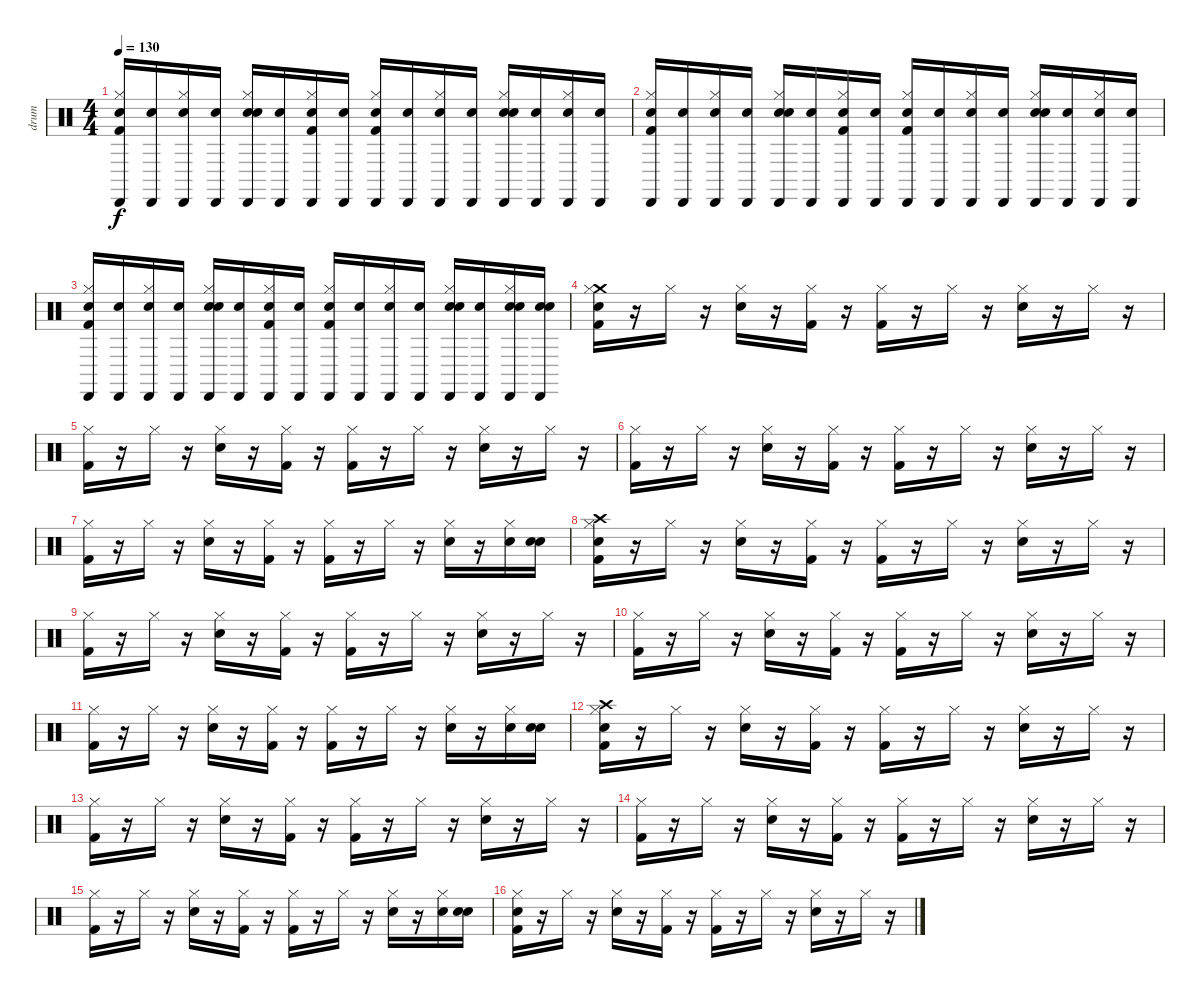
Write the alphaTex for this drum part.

\track ("drum" "drum") {instrument percussion}
\staff {score}
\articulation defaults
\ts (4 4)
\tempo 130
\clef neutral
\ks c
("Snare (hit)" "Cabasa (hit)" "Hi-Hat (closed)" "Kick (hit) 2").16{dy f} ("Snare (hit)" "Cabasa (hit)").16 ("Snare (hit)" "Cabasa (hit)" "Hi-Hat (closed)").16 ("Snare (hit)" "Cabasa (hit)").16 ("Snare (hit)" "Cabasa (hit)" "Snare (hit) 2" "Hi-Hat (closed)").16 ("Snare (hit)" "Cabasa (hit)").16 ("Snare (hit)" "Kick (hit) 2" "Hi-Hat (closed)" "Cabasa (hit)").16 ("Snare (hit)" "Cabasa (hit)").16 ("Snare (hit)" "Kick (hit) 2" "Hi-Hat (closed)" "Cabasa (hit)").16 ("Snare (hit)" "Cabasa (hit)").16 ("Snare (hit)" "Cabasa (hit)" "Hi-Hat (closed)").16 ("Snare (hit)" "Cabasa (hit)").16 ("Snare (hit)" "Hi-Hat (closed)" "Cabasa (hit)" "Snare (hit) 2").16 ("Snare (hit)" "Cabasa (hit)").16 ("Snare (hit)" "Hi-Hat (closed)" "Cabasa (hit)").16 ("Snare (hit)" "Cabasa (hit)").16 |
("Snare (hit)" "Kick (hit) 2" "Hi-Hat (closed)" "Cabasa (hit)").16 ("Snare (hit)" "Cabasa (hit)").16 ("Snare (hit)" "Cabasa (hit)" "Hi-Hat (closed)").16 ("Snare (hit)" "Cabasa (hit)").16 ("Snare (hit)" "Snare (hit) 2" "Hi-Hat (closed)" "Cabasa (hit)").16 ("Snare (hit)" "Cabasa (hit)").16 ("Snare (hit)" "Hi-Hat (closed)" "Kick (hit) 2" "Cabasa (hit)").16 ("Snare (hit)" "Cabasa (hit)").16 ("Snare (hit)" "Cabasa (hit)" "Kick (hit) 2" "Hi-Hat (closed)").16 ("Snare (hit)" "Cabasa (hit)").16 ("Snare (hit)" "Hi-Hat (closed)" "Cabasa (hit)").16 ("Snare (hit)" "Cabasa (hit)").16 ("Snare (hit)" "Snare (hit) 2" "Hi-Hat (closed)" "Cabasa (hit)").16 ("Snare (hit)" "Cabasa (hit)").16 ("Snare (hit)" "Cabasa (hit)" "Hi-Hat (closed)").16 ("Snare (hit)" "Cabasa (hit)").16 |
("Snare (hit)" "Hi-Hat (closed)" "Cabasa (hit)" "Kick (hit) 2").16 ("Snare (hit)" "Cabasa (hit)").16 ("Snare (hit)" "Hi-Hat (closed)" "Cabasa (hit)").16 ("Snare (hit)" "Cabasa (hit)").16 ("Snare (hit)" "Cabasa (hit)" "Hi-Hat (closed)" "Snare (hit) 2").16 ("Snare (hit)" "Cabasa (hit)").16 ("Snare (hit)" "Kick (hit) 2" "Cabasa (hit)" "Hi-Hat (closed)").16 ("Snare (hit)" "Cabasa (hit)").16 ("Snare (hit)" "Hi-Hat (closed)" "Kick (hit) 2" "Cabasa (hit)").16 ("Snare (hit)" "Cabasa (hit)").16 ("Snare (hit)" "Cabasa (hit)" "Hi-Hat (closed)").16 ("Snare (hit)" "Cabasa (hit)").16 ("Snare (hit)" "Snare (hit) 2" "Cabasa (hit)" "Hi-Hat (closed)").16 ("Snare (hit)" "Cabasa (hit)").16 ("Snare (hit)" "Hi-Hat (closed)" "Cabasa (hit)" "Snare (hit) 2").16 ("Snare (hit)" "Snare (hit) 2" "Cabasa (hit)").16 |
("Snare (hit)" "Kick (hit) 2" "Crash medium (hit)" "Hi-Hat (closed)").16 r.16 "Hi-Hat (closed)".16 r.16 ("Snare (hit) 2" "Hi-Hat (closed)").16 r.16 ("Hi-Hat (closed)" "Kick (hit) 2").16 r.16 ("Kick (hit) 2" "Hi-Hat (closed)").16 r.16 "Hi-Hat (closed)".16 r.16 ("Hi-Hat (closed)" "Snare (hit) 2").16 r.16 "Hi-Hat (closed)".16 r.16 |
("Hi-Hat (closed)" "Kick (hit) 2").16 r.16 "Hi-Hat (closed)".16 r.16 ("Hi-Hat (closed)" "Snare (hit) 2").16 r.16 ("Kick (hit) 2" "Hi-Hat (closed)").16 r.16 ("Kick (hit) 2" "Hi-Hat (closed)").16 r.16 "Hi-Hat (closed)".16 r.16 ("Hi-Hat (closed)" "Snare (hit) 2").16 r.16 "Hi-Hat (closed)".16 r.16 |
("Kick (hit) 2" "Hi-Hat (closed)").16 r.16 "Hi-Hat (closed)".16 r.16 ("Snare (hit) 2" "Hi-Hat (closed)").16 r.16 ("Kick (hit) 2" "Hi-Hat (closed)").16 r.16 ("Kick (hit) 2" "Hi-Hat (closed)").16 r.16 "Hi-Hat (closed)".16 r.16 ("Hi-Hat (closed)" "Snare (hit) 2").16 r.16 "Hi-Hat (closed)".16 r.16 |
("Kick (hit) 2" "Hi-Hat (closed)").16 r.16 "Hi-Hat (closed)".16 r.16 ("Hi-Hat (closed)" "Snare (hit) 2").16 r.16 ("Hi-Hat (closed)" "Kick (hit) 2").16 r.16 ("Kick (hit) 2" "Hi-Hat (closed)").16 r.16 "Hi-Hat (closed)".16 r.16 ("Snare (hit) 2" "Hi-Hat (closed)").16 r.16 ("Snare (hit) 2" "Hi-Hat (closed)").16 ("Snare (hit)" "Snare (hit) 2").16 |
("Snare (hit)" "Crash high (hit)" "Hi-Hat (closed)" "Kick (hit) 2").16 r.16 "Hi-Hat (closed)".16 r.16 ("Hi-Hat (closed)" "Snare (hit) 2").16 r.16 ("Hi-Hat (closed)" "Kick (hit) 2").16 r.16 ("Kick (hit) 2" "Hi-Hat (closed)").16 r.16 "Hi-Hat (closed)".16 r.16 ("Snare (hit) 2" "Hi-Hat (closed)").16 r.16 "Hi-Hat (closed)".16 r.16 |
("Kick (hit) 2" "Hi-Hat (closed)").16 r.16 "Hi-Hat (closed)".16 r.16 ("Snare (hit) 2" "Hi-Hat (closed)").16 r.16 ("Kick (hit) 2" "Hi-Hat (closed)").16 r.16 ("Kick (hit) 2" "Hi-Hat (closed)").16 r.16 "Hi-Hat (closed)".16 r.16 ("Hi-Hat (closed)" "Snare (hit) 2").16 r.16 "Hi-Hat (closed)".16 r.16 |
("Hi-Hat (closed)" "Kick (hit) 2").16 r.16 "Hi-Hat (closed)".16 r.16 ("Hi-Hat (closed)" "Snare (hit) 2").16 r.16 ("Kick (hit) 2" "Hi-Hat (closed)").16 r.16 ("Kick (hit) 2" "Hi-Hat (closed)").16 r.16 "Hi-Hat (closed)".16 r.16 ("Hi-Hat (closed)" "Snare (hit) 2").16 r.16 "Hi-Hat (closed)".16 r.16 |
("Kick (hit) 2" "Hi-Hat (closed)").16 r.16 "Hi-Hat (closed)".16 r.16 ("Snare (hit) 2" "Hi-Hat (closed)").16 r.16 ("Hi-Hat (closed)" "Kick (hit) 2").16 r.16 ("Kick (hit) 2" "Hi-Hat (closed)").16 r.16 "Hi-Hat (closed)".16 r.16 ("Hi-Hat (closed)" "Snare (hit) 2").16 r.16 ("Snare (hit) 2" "Hi-Hat (closed)").16 ("Snare (hit)" "Snare (hit) 2").16 |
("Snare (hit)" "Hi-Hat (closed)" "Kick (hit) 2" "Crash high (hit)").16 r.16 "Hi-Hat (closed)".16 r.16 ("Hi-Hat (closed)" "Snare (hit) 2").16 r.16 ("Kick (hit) 2" "Hi-Hat (closed)").16 r.16 ("Hi-Hat (closed)" "Kick (hit) 2").16 r.16 "Hi-Hat (closed)".16 r.16 ("Hi-Hat (closed)" "Snare (hit) 2").16 r.16 "Hi-Hat (closed)".16 r.16 |
("Hi-Hat (closed)" "Kick (hit) 2").16 r.16 "Hi-Hat (closed)".16 r.16 ("Hi-Hat (closed)" "Snare (hit) 2").16 r.16 ("Kick (hit) 2" "Hi-Hat (closed)").16 r.16 ("Kick (hit) 2" "Hi-Hat (closed)").16 r.16 "Hi-Hat (closed)".16 r.16 ("Hi-Hat (closed)" "Snare (hit) 2").16 r.16 "Hi-Hat (closed)".16 r.16 |
("Hi-Hat (closed)" "Kick (hit) 2").16 r.16 "Hi-Hat (closed)".16 r.16 ("Snare (hit) 2" "Hi-Hat (closed)").16 r.16 ("Hi-Hat (closed)" "Kick (hit) 2").16 r.16 ("Hi-Hat (closed)" "Kick (hit) 2").16 r.16 "Hi-Hat (closed)".16 r.16 ("Hi-Hat (closed)" "Snare (hit) 2").16 r.16 "Hi-Hat (closed)".16 r.16 |
("Kick (hit) 2" "Hi-Hat (closed)").16 r.16 "Hi-Hat (closed)".16 r.16 ("Snare (hit) 2" "Hi-Hat (closed)").16 r.16 ("Hi-Hat (closed)" "Kick (hit) 2").16 r.16 ("Hi-Hat (closed)" "Kick (hit) 2").16 r.16 "Hi-Hat (closed)".16 r.16 ("Hi-Hat (closed)" "Snare (hit) 2").16 r.16 ("Hi-Hat (closed)" "Snare (hit) 2").16 ("Snare (hit)" "Snare (hit) 2").16 |
("Snare (hit)" "Kick (hit) 2" "Hi-Hat (closed)").16 r.16 "Hi-Hat (closed)".16 r.16 ("Hi-Hat (closed)" "Snare (hit) 2").16 r.16 ("Hi-Hat (closed)" "Kick (hit) 2").16 r.16 ("Hi-Hat (closed)" "Kick (hit) 2").16 r.16 "Hi-Hat (closed)".16 r.16 ("Snare (hit) 2" "Hi-Hat (closed)").16 r.16 "Hi-Hat (closed)".16 r.16
